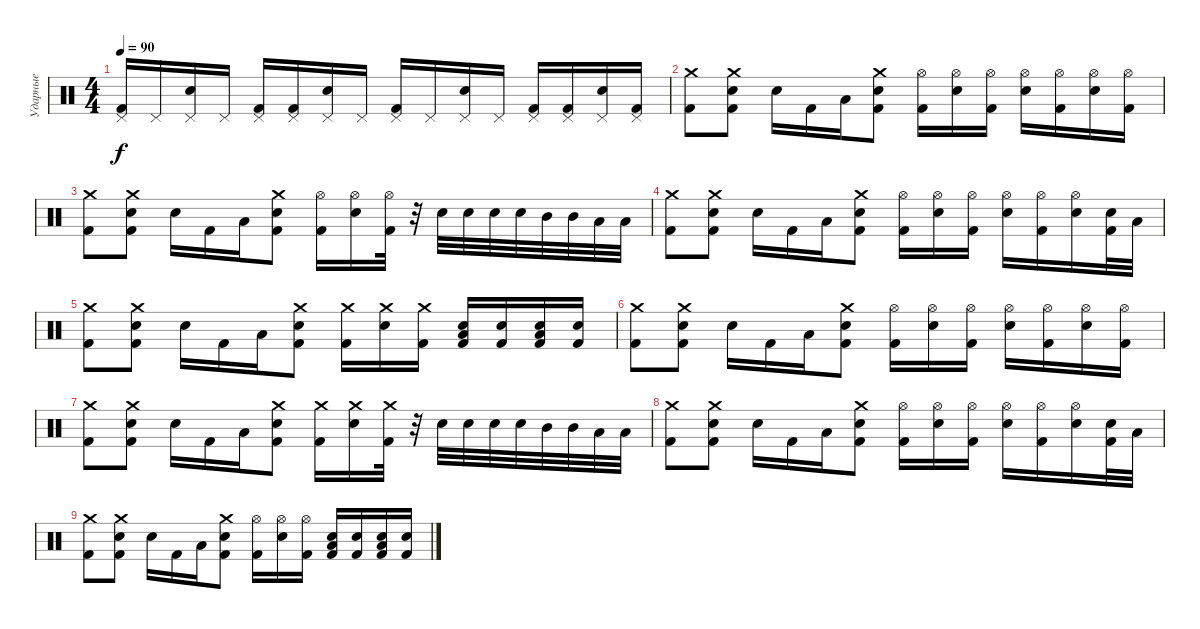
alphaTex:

\track ("Ударные" "Ударные") {instrument percussion}
\staff {score}
\articulation defaults
\ts (4 4)
\tempo 90
\clef neutral
\ks c
("Kick (hit) 2" "Pedal Hi-Hat (hit)").16{dy f} "Pedal Hi-Hat (hit)".16 ("Electric Snare (hit)" "Pedal Hi-Hat (hit)").16 "Pedal Hi-Hat (hit)".16 ("Kick (hit) 2" "Pedal Hi-Hat (hit)").16 ("Kick (hit) 2" "Pedal Hi-Hat (hit)").16 ("Electric Snare (hit)" "Pedal Hi-Hat (hit)").16 "Pedal Hi-Hat (hit)".16 ("Kick (hit) 2" "Pedal Hi-Hat (hit)").16 "Pedal Hi-Hat (hit)".16 ("Electric Snare (hit)" "Pedal Hi-Hat (hit)").16 "Pedal Hi-Hat (hit)".16 ("Kick (hit) 2" "Pedal Hi-Hat (hit)").16 ("Kick (hit) 2" "Pedal Hi-Hat (hit)").16 ("Electric Snare (hit)" "Pedal Hi-Hat (hit)").16 ("Kick (hit) 2" "Pedal Hi-Hat (hit)").16 |
("Kick (hit) 2" "Crash medium (hit)").8 ("Kick (hit) 2" "Electric Snare (hit)" "Crash medium (hit)").8 "Electric Snare (hit)".16 "Kick (hit) 2".16 "Low Tom (hit)".16 ("Kick (hit) 2" "Electric Snare (hit)" "Crash medium (hit)").8 ("Kick (hit) 2" "Hi-Hat (open)").16 ("Electric Snare (hit)" "Hi-Hat (open)").16 ("Kick (hit) 2" "Hi-Hat (open)").16 ("Electric Snare (hit)" "Hi-Hat (open)").16 ("Kick (hit) 2" "Hi-Hat (open)").16 ("Electric Snare (hit)" "Hi-Hat (open)").16 ("Kick (hit) 2" "Hi-Hat (open)").16 |
("Kick (hit) 2" "Crash medium (hit)").8 ("Kick (hit) 2" "Electric Snare (hit)" "Crash medium (hit)").8 "Electric Snare (hit)".16 "Kick (hit) 2".16 "Low Tom (hit)".16 ("Kick (hit) 2" "Electric Snare (hit)" "Crash medium (hit)").8 ("Kick (hit) 2" "Hi-Hat (open)").16 ("Electric Snare (hit)" "Hi-Hat (open)").16 ("Kick (hit) 2" "Hi-Hat (open)").32 r.32 "Electric Snare (hit)".32 "Electric Snare (hit)".32 "Electric Snare (hit)".32 "Electric Snare (hit)".32 "Mid Tom (hit)".32 "Mid Tom (hit)".32 "Low Tom (hit)".32 "Low Tom (hit)".32 |
("Kick (hit) 2" "Crash medium (hit)").8 ("Kick (hit) 2" "Electric Snare (hit)" "Crash medium (hit)").8 "Electric Snare (hit)".16 "Kick (hit) 2".16 "Low Tom (hit)".16 ("Kick (hit) 2" "Electric Snare (hit)" "Crash medium (hit)").8 ("Kick (hit) 2" "Hi-Hat (open)").16 ("Electric Snare (hit)" "Hi-Hat (open)").16 ("Kick (hit) 2" "Hi-Hat (open)").16 ("Electric Snare (hit)" "Hi-Hat (open)").16 ("Kick (hit) 2" "Hi-Hat (open)").16 ("Electric Snare (hit)" "Hi-Hat (open)").16 ("Kick (hit) 2" "Electric Snare (hit)").32 "Low Tom (hit)".32 |
("Kick (hit) 2" "Crash medium (hit)").8 ("Kick (hit) 2" "Electric Snare (hit)" "Crash medium (hit)").8 "Electric Snare (hit)".16 "Kick (hit) 2".16 "Low Tom (hit)".16 ("Kick (hit) 2" "Electric Snare (hit)" "Crash medium (hit)").8 ("Kick (hit) 2" "Crash medium (hit)").16 ("Electric Snare (hit)" "Crash medium (hit)").16 ("Kick (hit) 2" "Crash medium (hit)").16 ("Low Tom (hit)" "Electric Snare (hit)" "Kick (hit) 2").16 ("Electric Snare (hit)" "Kick (hit) 2").16 ("Low Tom (hit)" "Electric Snare (hit)" "Kick (hit) 2").16 ("Electric Snare (hit)" "Kick (hit) 2").16 |
("Kick (hit) 2" "Crash medium (hit)").8 ("Kick (hit) 2" "Electric Snare (hit)" "Crash medium (hit)").8 "Electric Snare (hit)".16 "Kick (hit) 2".16 "Low Tom (hit)".16 ("Kick (hit) 2" "Electric Snare (hit)" "Crash medium (hit)").8 ("Kick (hit) 2" "Hi-Hat (open)").16 ("Electric Snare (hit)" "Hi-Hat (open)").16 ("Kick (hit) 2" "Hi-Hat (open)").16 ("Electric Snare (hit)" "Hi-Hat (open)").16 ("Kick (hit) 2" "Hi-Hat (open)").16 ("Electric Snare (hit)" "Hi-Hat (open)").16 ("Kick (hit) 2" "Hi-Hat (open)").16 |
("Kick (hit) 2" "Crash medium (hit)").8 ("Kick (hit) 2" "Electric Snare (hit)" "Crash medium (hit)").8 "Electric Snare (hit)".16 "Kick (hit) 2".16 "Low Tom (hit)".16 ("Kick (hit) 2" "Electric Snare (hit)" "Crash medium (hit)").8 ("Kick (hit) 2" "Crash medium (hit)").16 ("Electric Snare (hit)" "Crash medium (hit)").16 ("Kick (hit) 2" "Crash medium (hit)").32 r.32 "Electric Snare (hit)".32 "Electric Snare (hit)".32 "Electric Snare (hit)".32 "Electric Snare (hit)".32 "Mid Tom (hit)".32 "Mid Tom (hit)".32 "Low Tom (hit)".32 "Low Tom (hit)".32 |
("Kick (hit) 2" "Crash medium (hit)").8 ("Kick (hit) 2" "Electric Snare (hit)" "Crash medium (hit)").8 "Electric Snare (hit)".16 "Kick (hit) 2".16 "Low Tom (hit)".16 ("Kick (hit) 2" "Electric Snare (hit)" "Crash medium (hit)").8 ("Kick (hit) 2" "Hi-Hat (open)").16 ("Electric Snare (hit)" "Hi-Hat (open)").16 ("Kick (hit) 2" "Hi-Hat (open)").16 ("Electric Snare (hit)" "Hi-Hat (open)").16 ("Kick (hit) 2" "Hi-Hat (open)").16 ("Electric Snare (hit)" "Hi-Hat (open)").16 ("Kick (hit) 2" "Electric Snare (hit)").32 "Low Tom (hit)".32 |
("Kick (hit) 2" "Crash medium (hit)").8 ("Kick (hit) 2" "Electric Snare (hit)" "Crash medium (hit)").8 "Electric Snare (hit)".16 "Kick (hit) 2".16 "Low Tom (hit)".16 ("Kick (hit) 2" "Electric Snare (hit)" "Crash medium (hit)").8 ("Kick (hit) 2" "Hi-Hat (open)").16 ("Electric Snare (hit)" "Hi-Hat (open)").16 ("Kick (hit) 2" "Hi-Hat (open)").16 ("Low Tom (hit)" "Electric Snare (hit)" "Kick (hit) 2").16 ("Electric Snare (hit)" "Kick (hit) 2").16 ("Low Tom (hit)" "Electric Snare (hit)" "Kick (hit) 2").16 ("Electric Snare (hit)" "Kick (hit) 2").16
